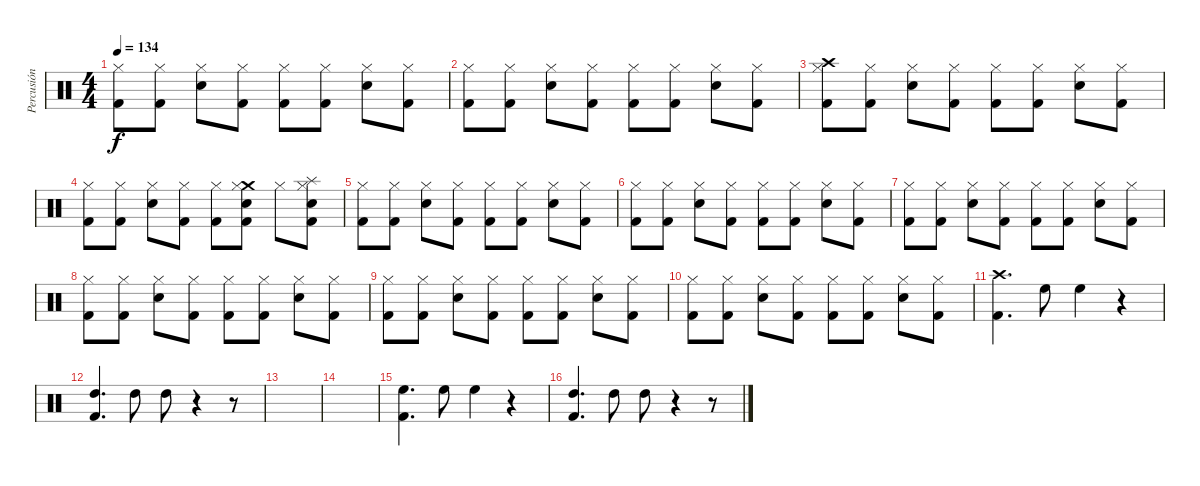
\track ("Percusión" "Percusión") {instrument percussion}
\staff {score}
\articulation defaults
\ts (4 4)
\tempo 134
\clef neutral
\ks c
("Hi-Hat (closed)" "Kick (hit) 2").8{dy f} ("Hi-Hat (closed)" "Kick (hit) 2").8 ("Hi-Hat (closed)" "Snare (hit) 2").8 ("Hi-Hat (closed)" "Kick (hit) 2").8 ("Hi-Hat (closed)" "Kick (hit) 2").8 ("Hi-Hat (closed)" "Kick (hit) 2").8 ("Hi-Hat (closed)" "Snare (hit) 2").8 ("Hi-Hat (closed)" "Kick (hit) 2").8 |
("Hi-Hat (closed)" "Kick (hit) 2").8 ("Hi-Hat (closed)" "Kick (hit) 2").8 ("Hi-Hat (closed)" "Snare (hit) 2").8 ("Hi-Hat (closed)" "Kick (hit) 2").8 ("Hi-Hat (closed)" "Kick (hit) 2").8 ("Hi-Hat (closed)" "Kick (hit) 2").8 ("Hi-Hat (closed)" "Snare (hit) 2").8 ("Hi-Hat (closed)" "Kick (hit) 2").8 |
("Crash high (hit)" "Hi-Hat (closed)" "Kick (hit) 2").8 ("Hi-Hat (closed)" "Kick (hit) 2").8 ("Hi-Hat (closed)" "Snare (hit) 2").8 ("Hi-Hat (closed)" "Kick (hit) 2").8 ("Hi-Hat (closed)" "Kick (hit) 2").8 ("Hi-Hat (closed)" "Kick (hit) 2").8 ("Hi-Hat (closed)" "Snare (hit) 2").8 ("Hi-Hat (closed)" "Kick (hit) 2").8 |
("Hi-Hat (closed)" "Kick (hit) 2").8 ("Hi-Hat (closed)" "Kick (hit) 2").8 ("Hi-Hat (closed)" "Snare (hit) 2").8 ("Hi-Hat (closed)" "Kick (hit) 2").8 ("Hi-Hat (closed)" "Kick (hit) 2").8 ("Crash medium (hit)" "Hi-Hat (closed)" "Snare (hit) 2" "Kick (hit) 2").8 "Hi-Hat (closed)".8 ("Splash (hit)" "Hi-Hat (closed)" "Snare (hit) 2" "Kick (hit) 2").8 |
("Hi-Hat (closed)" "Kick (hit) 2").8 ("Hi-Hat (closed)" "Kick (hit) 2").8 ("Hi-Hat (closed)" "Snare (hit) 2").8 ("Hi-Hat (closed)" "Kick (hit) 2").8 ("Hi-Hat (closed)" "Kick (hit) 2").8 ("Hi-Hat (closed)" "Kick (hit) 2").8 ("Hi-Hat (closed)" "Snare (hit) 2").8 ("Hi-Hat (closed)" "Kick (hit) 2").8 |
("Hi-Hat (closed)" "Kick (hit) 2").8 ("Hi-Hat (closed)" "Kick (hit) 2").8 ("Hi-Hat (closed)" "Snare (hit) 2").8 ("Hi-Hat (closed)" "Kick (hit) 2").8 ("Hi-Hat (closed)" "Kick (hit) 2").8 ("Hi-Hat (closed)" "Kick (hit) 2").8 ("Hi-Hat (closed)" "Snare (hit) 2").8 ("Hi-Hat (closed)" "Kick (hit) 2").8 |
("Hi-Hat (closed)" "Kick (hit) 2").8 ("Hi-Hat (closed)" "Kick (hit) 2").8 ("Hi-Hat (closed)" "Snare (hit) 2").8 ("Hi-Hat (closed)" "Kick (hit) 2").8 ("Hi-Hat (closed)" "Kick (hit) 2").8 ("Hi-Hat (closed)" "Kick (hit) 2").8 ("Hi-Hat (closed)" "Snare (hit) 2").8 ("Hi-Hat (closed)" "Kick (hit) 2").8 |
("Hi-Hat (closed)" "Kick (hit) 2").8 ("Hi-Hat (closed)" "Kick (hit) 2").8 ("Hi-Hat (closed)" "Snare (hit) 2").8 ("Hi-Hat (closed)" "Kick (hit) 2").8 ("Hi-Hat (closed)" "Kick (hit) 2").8 ("Hi-Hat (closed)" "Kick (hit) 2").8 ("Hi-Hat (closed)" "Snare (hit) 2").8 ("Hi-Hat (closed)" "Kick (hit) 2").8 |
("Hi-Hat (closed)" "Kick (hit) 2").8 ("Hi-Hat (closed)" "Kick (hit) 2").8 ("Hi-Hat (closed)" "Snare (hit) 2").8 ("Hi-Hat (closed)" "Kick (hit) 2").8 ("Hi-Hat (closed)" "Kick (hit) 2").8 ("Hi-Hat (closed)" "Kick (hit) 2").8 ("Hi-Hat (closed)" "Snare (hit) 2").8 ("Hi-Hat (closed)" "Kick (hit) 2").8 |
("Hi-Hat (closed)" "Kick (hit) 2").8 ("Hi-Hat (closed)" "Kick (hit) 2").8 ("Hi-Hat (closed)" "Snare (hit) 2").8 ("Hi-Hat (closed)" "Kick (hit) 2").8 ("Hi-Hat (closed)" "Kick (hit) 2").8 ("Hi-Hat (closed)" "Kick (hit) 2").8 ("Hi-Hat (closed)" "Snare (hit) 2").8 ("Hi-Hat (closed)" "Kick (hit) 2").8 |
("Crash high (hit)" "Kick (hit) 2").4{d} "High Floor Tom (hit)".8 "High Floor Tom (hit)".4 r.4 |
("High Tom (hit)" "Kick (hit) 2").4{d} "High Tom (hit)".8 "High Tom (hit)".8 r.4 r.8 |
|
|
("High Floor Tom (hit)" "Kick (hit) 2").4{d} "High Floor Tom (hit)".8 "High Floor Tom (hit)".4 r.4 |
("High Tom (hit)" "Kick (hit) 2").4{d} "High Tom (hit)".8 "High Tom (hit)".8 r.4 r.8
